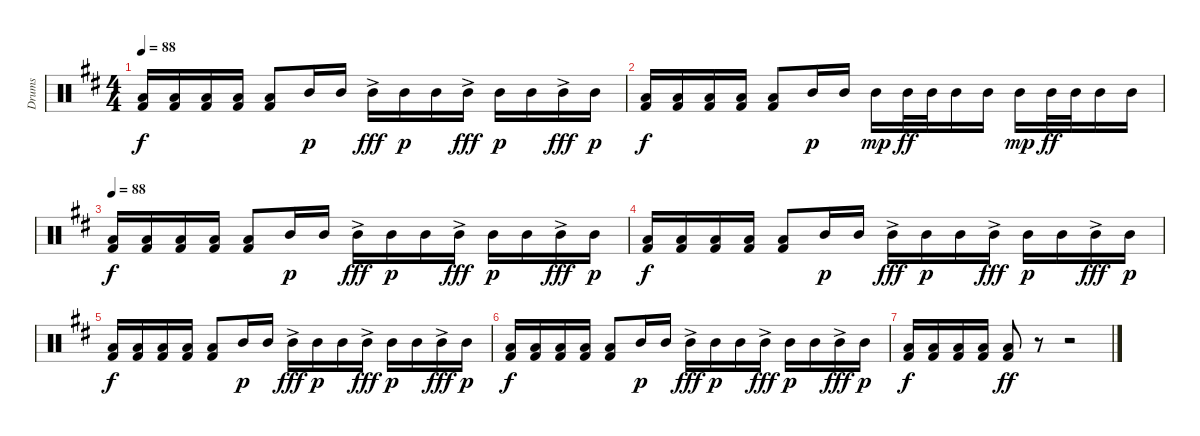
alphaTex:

\track ("Drums" "Drums") {instrument percussion}
\staff {score}
\articulation defaults
\ts (4 4)
\tempo 88
\clef neutral
\ks bminor
("Low Tom (hit)" "Kick (hit) 2").16{dy f} ("Low Tom (hit)" "Kick (hit) 2").16 ("Low Tom (hit)" "Kick (hit) 2").16 ("Low Tom (hit)" "Kick (hit) 2").16 ("Low Tom (hit)" "Kick (hit) 2").8 "Mid Tom (hit)".16{dy p} "Mid Tom (hit)".16 "Mid Tom (hit)"{ac}.16{dy fff} "Mid Tom (hit)".16{dy p} "Mid Tom (hit)".16 "Mid Tom (hit)"{ac}.16{dy fff} "Mid Tom (hit)".16{dy p} "Mid Tom (hit)".16 "Mid Tom (hit)"{ac}.16{dy fff} "Mid Tom (hit)".16{dy p} |
("Low Tom (hit)" "Kick (hit) 2").16{dy f} ("Low Tom (hit)" "Kick (hit) 2").16 ("Low Tom (hit)" "Kick (hit) 2").16 ("Low Tom (hit)" "Kick (hit) 2").16 ("Low Tom (hit)" "Kick (hit) 2").8 "Mid Tom (hit)".16{dy p} "Mid Tom (hit)".16 "Mid Tom (hit)".16{dy mp} "Mid Tom (hit)".32{dy ff} "Mid Tom (hit)".32 "Mid Tom (hit)".16 "Mid Tom (hit)".16 "Mid Tom (hit)".16{dy mp} "Mid Tom (hit)".32{dy ff} "Mid Tom (hit)".32 "Mid Tom (hit)".16 "Mid Tom (hit)".16 |
\tempo 88
("Low Tom (hit)" "Kick (hit) 2").16{dy f} ("Low Tom (hit)" "Kick (hit) 2").16 ("Low Tom (hit)" "Kick (hit) 2").16 ("Low Tom (hit)" "Kick (hit) 2").16 ("Low Tom (hit)" "Kick (hit) 2").8 "Mid Tom (hit)".16{dy p} "Mid Tom (hit)".16 "Mid Tom (hit)"{ac}.16{dy fff} "Mid Tom (hit)".16{dy p} "Mid Tom (hit)".16 "Mid Tom (hit)"{ac}.16{dy fff} "Mid Tom (hit)".16{dy p} "Mid Tom (hit)".16 "Mid Tom (hit)"{ac}.16{dy fff} "Mid Tom (hit)".16{dy p} |
("Low Tom (hit)" "Kick (hit) 2").16{dy f} ("Low Tom (hit)" "Kick (hit) 2").16 ("Low Tom (hit)" "Kick (hit) 2").16 ("Low Tom (hit)" "Kick (hit) 2").16 ("Low Tom (hit)" "Kick (hit) 2").8 "Mid Tom (hit)".16{dy p} "Mid Tom (hit)".16 "Mid Tom (hit)"{ac}.16{dy fff} "Mid Tom (hit)".16{dy p} "Mid Tom (hit)".16 "Mid Tom (hit)"{ac}.16{dy fff} "Mid Tom (hit)".16{dy p} "Mid Tom (hit)".16 "Mid Tom (hit)"{ac}.16{dy fff} "Mid Tom (hit)".16{dy p} |
("Low Tom (hit)" "Kick (hit) 2").16{dy f} ("Low Tom (hit)" "Kick (hit) 2").16 ("Low Tom (hit)" "Kick (hit) 2").16 ("Low Tom (hit)" "Kick (hit) 2").16 ("Low Tom (hit)" "Kick (hit) 2").8 "Mid Tom (hit)".16{dy p} "Mid Tom (hit)".16 "Mid Tom (hit)"{ac}.16{dy fff} "Mid Tom (hit)".16{dy p} "Mid Tom (hit)".16 "Mid Tom (hit)"{ac}.16{dy fff} "Mid Tom (hit)".16{dy p} "Mid Tom (hit)".16 "Mid Tom (hit)"{ac}.16{dy fff} "Mid Tom (hit)".16{dy p} |
("Low Tom (hit)" "Kick (hit) 2").16{dy f} ("Low Tom (hit)" "Kick (hit) 2").16 ("Low Tom (hit)" "Kick (hit) 2").16 ("Low Tom (hit)" "Kick (hit) 2").16 ("Low Tom (hit)" "Kick (hit) 2").8 "Mid Tom (hit)".16{dy p} "Mid Tom (hit)".16 "Mid Tom (hit)"{ac}.16{dy fff} "Mid Tom (hit)".16{dy p} "Mid Tom (hit)".16 "Mid Tom (hit)"{ac}.16{dy fff} "Mid Tom (hit)".16{dy p} "Mid Tom (hit)".16 "Mid Tom (hit)"{ac}.16{dy fff} "Mid Tom (hit)".16{dy p} |
("Low Tom (hit)" "Kick (hit) 2").16{dy f} ("Low Tom (hit)" "Kick (hit) 2").16 ("Low Tom (hit)" "Kick (hit) 2").16 ("Low Tom (hit)" "Kick (hit) 2").16 ("Low Tom (hit)" "Kick (hit) 2").8{dy ff} r.8 r.2
